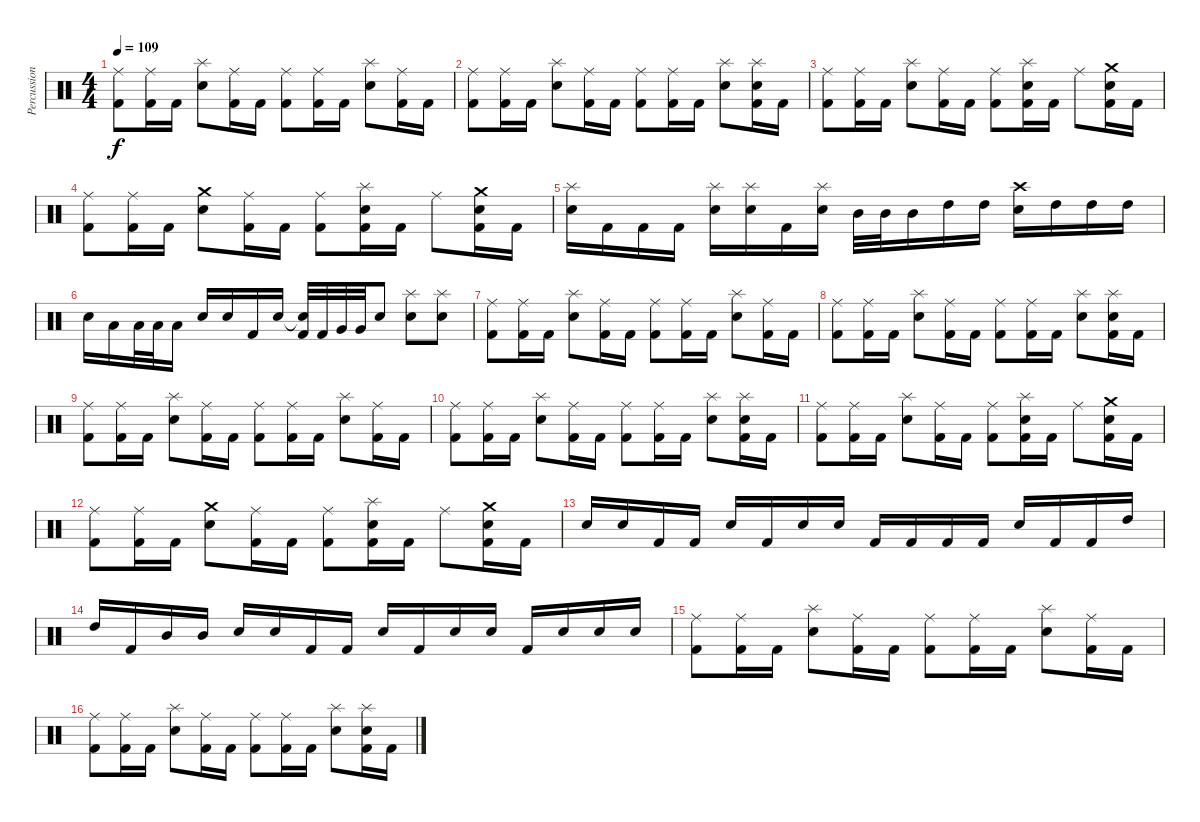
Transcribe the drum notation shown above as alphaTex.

\track ("Percussions" "Percussion") {instrument percussion}
\staff {score}
\articulation defaults
\ts (4 4)
\tempo 109
\clef neutral
\ks c
("Ride (middle)" "Kick (hit) 2").8{dy f} ("Ride (middle)" "Kick (hit) 2").16 "Kick (hit) 2".16 ("Splash (hit)" "Electric Snare (hit)").8 ("Ride (middle)" "Kick (hit) 2").16 "Kick (hit) 2".16 ("Ride (middle)" "Kick (hit) 2").8 ("Ride (middle)" "Kick (hit) 2").16 "Kick (hit) 2".16 ("Splash (hit)" "Electric Snare (hit)").8 ("Ride (middle)" "Kick (hit) 2").16 "Kick (hit) 2".16 |
("Ride (middle)" "Kick (hit) 2").8 ("Ride (middle)" "Kick (hit) 2").16 "Kick (hit) 2".16 ("Splash (hit)" "Electric Snare (hit)").8 ("Ride (middle)" "Kick (hit) 2").16 "Kick (hit) 2".16 ("Ride (middle)" "Kick (hit) 2").8 ("Ride (middle)" "Kick (hit) 2").16 "Kick (hit) 2".16 ("Splash (hit)" "Electric Snare (hit)").8 ("Splash (hit)" "Electric Snare (hit)" "Kick (hit) 2").16 "Kick (hit) 2".16 |
("Ride (middle)" "Kick (hit) 2").8 ("Ride (middle)" "Kick (hit) 2").16 "Kick (hit) 2".16 ("Splash (hit)" "Electric Snare (hit)").8 ("Ride (middle)" "Kick (hit) 2").16 "Kick (hit) 2".16 ("Ride (middle)" "Kick (hit) 2").8 ("Splash (hit)" "Electric Snare (hit)" "Kick (hit) 2").16 "Kick (hit) 2".16 "Ride (middle)".8 ("Crash medium (hit)" "Electric Snare (hit)" "Kick (hit) 2").16 "Kick (hit) 2".16 |
("Ride (middle)" "Kick (hit) 2").8 ("Ride (middle)" "Kick (hit) 2").16 "Kick (hit) 2".16 ("Crash medium (hit)" "Electric Snare (hit)").8 ("Ride (middle)" "Kick (hit) 2").16 "Kick (hit) 2".16 ("Ride (middle)" "Kick (hit) 2").8 ("Splash (hit)" "Electric Snare (hit)" "Kick (hit) 2").16 "Kick (hit) 2".16 "Ride (middle)".8 ("Crash medium (hit)" "Electric Snare (hit)" "Kick (hit) 2").16 "Kick (hit) 2".16 |
("Splash (hit)" "Electric Snare (hit)").16 "Kick (hit) 2".16 "Kick (hit) 2".16 "Kick (hit) 2".16 ("Splash (hit)" "Electric Snare (hit)").16 ("Splash (hit)" "Electric Snare (hit)").16 "Kick (hit) 2".16 ("Splash (hit)" "Electric Snare (hit)").16 "Mid Tom (hit)".32 "Mid Tom (hit)".32 "Mid Tom (hit)".16 "High Tom (hit)".16 "High Tom (hit)".16 ("Crash high (hit)" "Electric Snare (hit)").16 "High Tom (hit)".16 "High Tom (hit)".16 "High Tom (hit)".16 |
"Electric Snare (hit)".16 "Low Tom (hit)".16 "Low Tom (hit)".32 "Low Tom (hit)".32 "Low Tom (hit)".16 "Electric Snare (hit)".16 "Electric Snare (hit)".16 "Kick (hit) 2".16 "Electric Snare (hit)".16 ("Snare (hit)"{t} "Kick (hit) 2").32 "Kick (hit) 2".32 "Very Low Tom (hit)".32 "Very Low Tom (hit)".32 "Electric Snare (hit)".8 ("Splash (hit)" "Electric Snare (hit)").8 ("Splash (hit)" "Electric Snare (hit)").8 |
("Ride (middle)" "Kick (hit) 2").8 ("Ride (middle)" "Kick (hit) 2").16 "Kick (hit) 2".16 ("Splash (hit)" "Electric Snare (hit)").8 ("Ride (middle)" "Kick (hit) 2").16 "Kick (hit) 2".16 ("Ride (middle)" "Kick (hit) 2").8 ("Ride (middle)" "Kick (hit) 2").16 "Kick (hit) 2".16 ("Splash (hit)" "Electric Snare (hit)").8 ("Ride (middle)" "Kick (hit) 2").16 "Kick (hit) 2".16 |
("Ride (middle)" "Kick (hit) 2").8 ("Ride (middle)" "Kick (hit) 2").16 "Kick (hit) 2".16 ("Splash (hit)" "Electric Snare (hit)").8 ("Ride (middle)" "Kick (hit) 2").16 "Kick (hit) 2".16 ("Ride (middle)" "Kick (hit) 2").8 ("Ride (middle)" "Kick (hit) 2").16 "Kick (hit) 2".16 ("Splash (hit)" "Electric Snare (hit)").8 ("Splash (hit)" "Electric Snare (hit)" "Kick (hit) 2").16 "Kick (hit) 2".16 |
("Ride (middle)" "Kick (hit) 2").8 ("Ride (middle)" "Kick (hit) 2").16 "Kick (hit) 2".16 ("Splash (hit)" "Electric Snare (hit)").8 ("Ride (middle)" "Kick (hit) 2").16 "Kick (hit) 2".16 ("Ride (middle)" "Kick (hit) 2").8 ("Ride (middle)" "Kick (hit) 2").16 "Kick (hit) 2".16 ("Splash (hit)" "Electric Snare (hit)").8 ("Ride (middle)" "Kick (hit) 2").16 "Kick (hit) 2".16 |
("Ride (middle)" "Kick (hit) 2").8 ("Ride (middle)" "Kick (hit) 2").16 "Kick (hit) 2".16 ("Splash (hit)" "Electric Snare (hit)").8 ("Ride (middle)" "Kick (hit) 2").16 "Kick (hit) 2".16 ("Ride (middle)" "Kick (hit) 2").8 ("Ride (middle)" "Kick (hit) 2").16 "Kick (hit) 2".16 ("Splash (hit)" "Electric Snare (hit)").8 ("Splash (hit)" "Electric Snare (hit)" "Kick (hit) 2").16 "Kick (hit) 2".16 |
("Ride (middle)" "Kick (hit) 2").8 ("Ride (middle)" "Kick (hit) 2").16 "Kick (hit) 2".16 ("Splash (hit)" "Electric Snare (hit)").8 ("Ride (middle)" "Kick (hit) 2").16 "Kick (hit) 2".16 ("Ride (middle)" "Kick (hit) 2").8 ("Splash (hit)" "Electric Snare (hit)" "Kick (hit) 2").16 "Kick (hit) 2".16 "Ride (middle)".8 ("Crash medium (hit)" "Electric Snare (hit)" "Kick (hit) 2").16 "Kick (hit) 2".16 |
("Ride (middle)" "Kick (hit) 2").8 ("Ride (middle)" "Kick (hit) 2").16 "Kick (hit) 2".16 ("Crash medium (hit)" "Electric Snare (hit)").8 ("Ride (middle)" "Kick (hit) 2").16 "Kick (hit) 2".16 ("Ride (middle)" "Kick (hit) 2").8 ("Splash (hit)" "Electric Snare (hit)" "Kick (hit) 2").16 "Kick (hit) 2".16 "Ride (middle)".8 ("Crash medium (hit)" "Electric Snare (hit)" "Kick (hit) 2").16 "Kick (hit) 2".16 |
"Electric Snare (hit)".16 "Electric Snare (hit)".16 "Kick (hit) 2".16 "Kick (hit) 2".16 "Electric Snare (hit)".16 "Kick (hit) 2".16 "Electric Snare (hit)".16 "Electric Snare (hit)".16 "Kick (hit) 2".16 "Kick (hit) 2".16 "Kick (hit) 2".16 "Kick (hit) 2".16 "Electric Snare (hit)".16 "Kick (hit) 2".16 "Kick (hit) 2".16 "High Tom (hit)".16 |
"High Tom (hit)".16 "Kick (hit) 2".16 "Mid Tom (hit)".16 "Mid Tom (hit)".16 "Electric Snare (hit)".16 "Electric Snare (hit)".16 "Kick (hit) 2".16 "Kick (hit) 2".16 "Electric Snare (hit)".16 "Kick (hit) 2".16 "Electric Snare (hit)".16 "Electric Snare (hit)".16 "Kick (hit) 2".16 "Electric Snare (hit)".16 "Electric Snare (hit)".16 "Electric Snare (hit)".16 |
("Ride (middle)" "Kick (hit) 2").8 ("Ride (middle)" "Kick (hit) 2").16 "Kick (hit) 2".16 ("Splash (hit)" "Electric Snare (hit)").8 ("Ride (middle)" "Kick (hit) 2").16 "Kick (hit) 2".16 ("Ride (middle)" "Kick (hit) 2").8 ("Ride (middle)" "Kick (hit) 2").16 "Kick (hit) 2".16 ("Splash (hit)" "Electric Snare (hit)").8 ("Ride (middle)" "Kick (hit) 2").16 "Kick (hit) 2".16 |
("Ride (middle)" "Kick (hit) 2").8 ("Ride (middle)" "Kick (hit) 2").16 "Kick (hit) 2".16 ("Splash (hit)" "Electric Snare (hit)").8 ("Ride (middle)" "Kick (hit) 2").16 "Kick (hit) 2".16 ("Ride (middle)" "Kick (hit) 2").8 ("Ride (middle)" "Kick (hit) 2").16 "Kick (hit) 2".16 ("Splash (hit)" "Electric Snare (hit)").8 ("Splash (hit)" "Electric Snare (hit)" "Kick (hit) 2").16 "Kick (hit) 2".16
